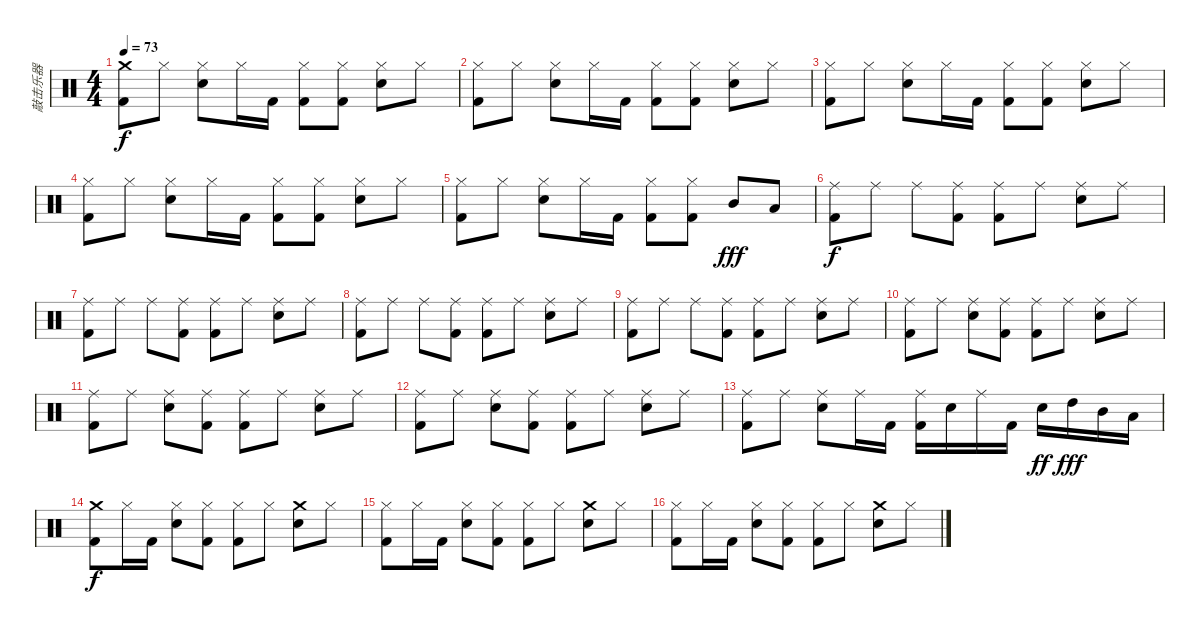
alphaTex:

\track ("敲击乐器" "敲击乐器") {instrument percussion}
\staff {score}
\articulation defaults
\ts (4 4)
\tempo 73
\clef neutral
\ks c
("Crash medium (hit)" "Kick (hit) 2").8{dy f} "Hi-Hat (closed)".8 ("Hi-Hat (closed)" "Electric Snare (hit)").8 "Hi-Hat (closed)".16 "Kick (hit) 2".16 ("Hi-Hat (closed)" "Kick (hit) 2").8 ("Hi-Hat (closed)" "Kick (hit) 2").8 ("Hi-Hat (closed)" "Electric Snare (hit)").8 "Hi-Hat (closed)".8 |
("Hi-Hat (closed)" "Kick (hit) 2").8 "Hi-Hat (closed)".8 ("Hi-Hat (closed)" "Electric Snare (hit)").8 "Hi-Hat (closed)".16 "Kick (hit) 2".16 ("Hi-Hat (closed)" "Kick (hit) 2").8 ("Hi-Hat (closed)" "Kick (hit) 2").8 ("Hi-Hat (closed)" "Electric Snare (hit)").8 "Hi-Hat (closed)".8 |
("Hi-Hat (closed)" "Kick (hit) 2").8 "Hi-Hat (closed)".8 ("Hi-Hat (closed)" "Electric Snare (hit)").8 "Hi-Hat (closed)".16 "Kick (hit) 2".16 ("Hi-Hat (closed)" "Kick (hit) 2").8 ("Hi-Hat (closed)" "Kick (hit) 2").8 ("Hi-Hat (closed)" "Electric Snare (hit)").8 "Hi-Hat (closed)".8 |
("Hi-Hat (closed)" "Kick (hit) 2").8 "Hi-Hat (closed)".8 ("Hi-Hat (closed)" "Electric Snare (hit)").8 "Hi-Hat (closed)".16 "Kick (hit) 2".16 ("Hi-Hat (closed)" "Kick (hit) 2").8 ("Hi-Hat (closed)" "Kick (hit) 2").8 ("Hi-Hat (closed)" "Electric Snare (hit)").8 "Hi-Hat (closed)".8 |
("Hi-Hat (closed)" "Kick (hit) 2").8 "Hi-Hat (closed)".8 ("Hi-Hat (closed)" "Electric Snare (hit)").8 "Hi-Hat (closed)".16 "Kick (hit) 2".16 ("Hi-Hat (closed)" "Kick (hit) 2").8 ("Hi-Hat (closed)" "Kick (hit) 2").8 "Mid Tom (hit)".8{dy fff} "Low Tom (hit)".8 |
("Ride (middle)" "Kick (hit) 2").8{dy f} "Ride (middle)".8 "Ride (middle)".8 ("Ride (middle)" "Kick (hit) 2").8 ("Ride (middle)" "Kick (hit) 2").8 "Ride (middle)".8 ("Ride (middle)" "Electric Snare (hit)").8 "Ride (middle)".8 |
("Ride (middle)" "Kick (hit) 2").8 "Ride (middle)".8 "Ride (middle)".8 ("Ride (middle)" "Kick (hit) 2").8 ("Ride (middle)" "Kick (hit) 2").8 "Ride (middle)".8 ("Ride (middle)" "Electric Snare (hit)").8 "Ride (middle)".8 |
("Ride (middle)" "Kick (hit) 2").8 "Ride (middle)".8 "Ride (middle)".8 ("Ride (middle)" "Kick (hit) 2").8 ("Ride (middle)" "Kick (hit) 2").8 "Ride (middle)".8 ("Ride (middle)" "Electric Snare (hit)").8 "Ride (middle)".8 |
("Ride (middle)" "Kick (hit) 2").8 "Ride (middle)".8 "Ride (middle)".8 ("Ride (middle)" "Kick (hit) 2").8 ("Ride (middle)" "Kick (hit) 2").8 "Ride (middle)".8 ("Ride (middle)" "Electric Snare (hit)").8 "Ride (middle)".8 |
("Ride (middle)" "Kick (hit) 2").8 "Ride (middle)".8 ("Ride (middle)" "Electric Snare (hit)").8 ("Ride (middle)" "Kick (hit) 2").8 ("Ride (middle)" "Kick (hit) 2").8 "Ride (middle)".8 ("Ride (middle)" "Electric Snare (hit)").8 "Ride (middle)".8 |
("Ride (middle)" "Kick (hit) 2").8 "Ride (middle)".8 ("Ride (middle)" "Electric Snare (hit)").8 ("Ride (middle)" "Kick (hit) 2").8 ("Ride (middle)" "Kick (hit) 2").8 "Ride (middle)".8 ("Ride (middle)" "Electric Snare (hit)").8 "Ride (middle)".8 |
("Ride (middle)" "Kick (hit) 2").8 "Ride (middle)".8 ("Ride (middle)" "Electric Snare (hit)").8 ("Ride (middle)" "Kick (hit) 2").8 ("Ride (middle)" "Kick (hit) 2").8 "Ride (middle)".8 ("Ride (middle)" "Electric Snare (hit)").8 "Ride (middle)".8 |
("Ride (middle)" "Kick (hit) 2").8 "Ride (middle)".8 ("Ride (middle)" "Electric Snare (hit)").8 "Ride (middle)".16 "Kick (hit) 2".16 ("Ride (middle)" "Kick (hit) 2").16 "Electric Snare (hit)".16 "Ride (middle)".16 "Kick (hit) 2".16 "Electric Snare (hit)".16{dy ff} "High Tom (hit)".16{dy fff} "Mid Tom (hit)".16 "Low Tom (hit)".16 |
("Crash medium (hit)" "Kick (hit) 2").8{dy f} "Hi-Hat (closed)".16 "Kick (hit) 2".16 ("Hi-Hat (closed)" "Electric Snare (hit)").8 ("Hi-Hat (closed)" "Kick (hit) 2").8 ("Hi-Hat (closed)" "Kick (hit) 2").8 "Hi-Hat (closed)".8 ("Crash medium (hit)" "Electric Snare (hit)").8 "Hi-Hat (closed)".8 |
("Hi-Hat (closed)" "Kick (hit) 2").8 "Hi-Hat (closed)".16 "Kick (hit) 2".16 ("Hi-Hat (closed)" "Electric Snare (hit)").8 ("Hi-Hat (closed)" "Kick (hit) 2").8 ("Hi-Hat (closed)" "Kick (hit) 2").8 "Hi-Hat (closed)".8 ("Crash medium (hit)" "Electric Snare (hit)").8 "Hi-Hat (closed)".8 |
("Hi-Hat (closed)" "Kick (hit) 2").8 "Hi-Hat (closed)".16 "Kick (hit) 2".16 ("Hi-Hat (closed)" "Electric Snare (hit)").8 ("Hi-Hat (closed)" "Kick (hit) 2").8 ("Hi-Hat (closed)" "Kick (hit) 2").8 "Hi-Hat (closed)".8 ("Crash medium (hit)" "Electric Snare (hit)").8 "Hi-Hat (closed)".8
